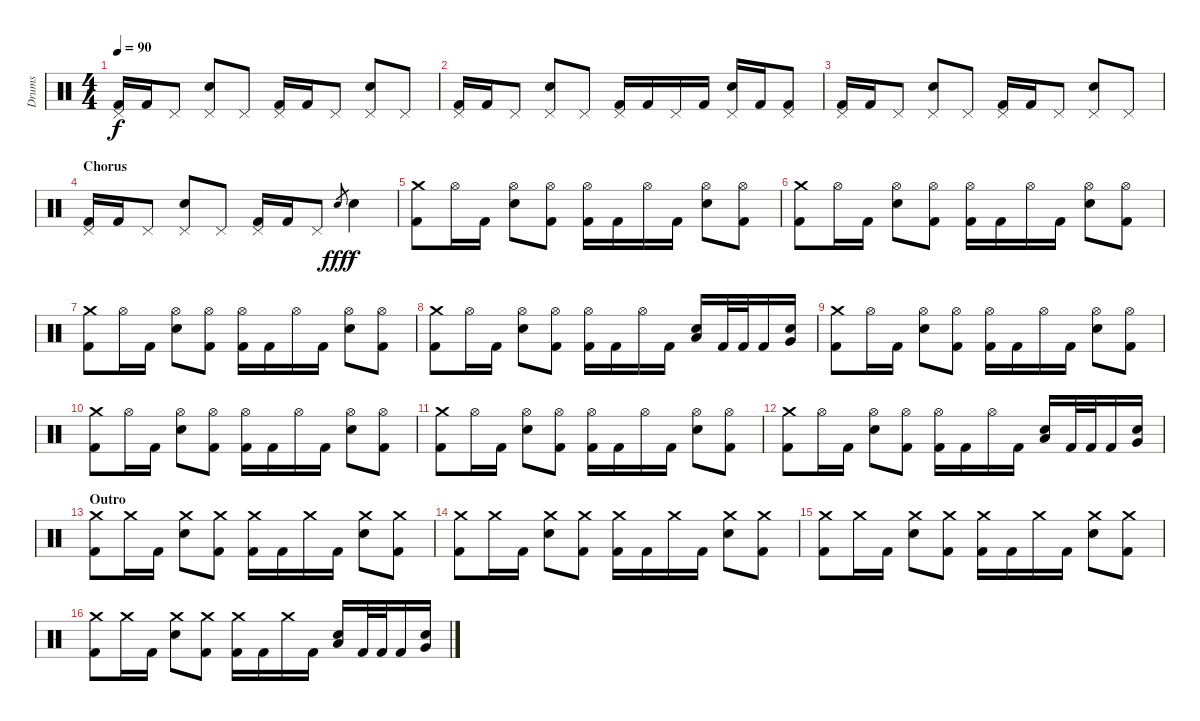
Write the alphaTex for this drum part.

\track ("Drums" "Drums") {instrument percussion}
\staff {score}
\articulation defaults
\ts (4 4)
\tempo 90
\clef neutral
\ks c
("Pedal Hi-Hat (hit)" "Kick (hit) 2").16{dy f} "Kick (hit) 2".16 "Pedal Hi-Hat (hit)".8 ("Pedal Hi-Hat (hit)" "Electric Snare (hit)").8 "Pedal Hi-Hat (hit)".8 ("Pedal Hi-Hat (hit)" "Kick (hit) 2").16 "Kick (hit) 2".16 "Pedal Hi-Hat (hit)".8 ("Pedal Hi-Hat (hit)" "Electric Snare (hit)").8 "Pedal Hi-Hat (hit)".8 |
("Pedal Hi-Hat (hit)" "Kick (hit) 2").16 "Kick (hit) 2".16 "Pedal Hi-Hat (hit)".8 ("Pedal Hi-Hat (hit)" "Electric Snare (hit)").8 "Pedal Hi-Hat (hit)".8 ("Pedal Hi-Hat (hit)" "Kick (hit) 2").16 "Kick (hit) 2".16 "Pedal Hi-Hat (hit)".16 "Kick (hit) 2".16 ("Pedal Hi-Hat (hit)" "Electric Snare (hit)").16 "Kick (hit) 2".16 ("Pedal Hi-Hat (hit)" "Kick (hit) 2").8 |
("Pedal Hi-Hat (hit)" "Kick (hit) 2").16 "Kick (hit) 2".16 "Pedal Hi-Hat (hit)".8 ("Pedal Hi-Hat (hit)" "Electric Snare (hit)").8 "Pedal Hi-Hat (hit)".8 ("Pedal Hi-Hat (hit)" "Kick (hit) 2").16 "Kick (hit) 2".16 "Pedal Hi-Hat (hit)".8 ("Pedal Hi-Hat (hit)" "Electric Snare (hit)").8 "Pedal Hi-Hat (hit)".8 |
\section ("" "Chorus")
("Pedal Hi-Hat (hit)" "Kick (hit) 2").16 "Kick (hit) 2".16 "Pedal Hi-Hat (hit)".8 ("Pedal Hi-Hat (hit)" "Electric Snare (hit)").8 "Pedal Hi-Hat (hit)".8 ("Pedal Hi-Hat (hit)" "Kick (hit) 2").16 "Kick (hit) 2".16 "Pedal Hi-Hat (hit)".8 "Electric Snare (hit)".8{gr dy fff} "Electric Snare (hit)".4{dy f} |
("Crash medium (hit)" "Kick (hit) 2").8 "Hi-Hat (open)".16 "Kick (hit) 2".16 ("Hi-Hat (open)" "Electric Snare (hit)").8 ("Hi-Hat (open)" "Kick (hit) 2").8 ("Hi-Hat (open)" "Kick (hit) 2").16 "Kick (hit) 2".16 "Hi-Hat (open)".16 "Kick (hit) 2".16 ("Hi-Hat (open)" "Electric Snare (hit)").8 ("Hi-Hat (open)" "Kick (hit) 2").8 |
("Crash medium (hit)" "Kick (hit) 2").8 "Hi-Hat (open)".16 "Kick (hit) 2".16 ("Hi-Hat (open)" "Electric Snare (hit)").8 ("Hi-Hat (open)" "Kick (hit) 2").8 ("Hi-Hat (open)" "Kick (hit) 2").16 "Kick (hit) 2".16 "Hi-Hat (open)".16 "Kick (hit) 2".16 ("Hi-Hat (open)" "Electric Snare (hit)").8 ("Hi-Hat (open)" "Kick (hit) 2").8 |
("Crash medium (hit)" "Kick (hit) 2").8 "Hi-Hat (open)".16 "Kick (hit) 2".16 ("Hi-Hat (open)" "Electric Snare (hit)").8 ("Hi-Hat (open)" "Kick (hit) 2").8 ("Hi-Hat (open)" "Kick (hit) 2").16 "Kick (hit) 2".16 "Hi-Hat (open)".16 "Kick (hit) 2".16 ("Hi-Hat (open)" "Electric Snare (hit)").8 ("Hi-Hat (open)" "Kick (hit) 2").8 |
("Crash medium (hit)" "Kick (hit) 2").8 "Hi-Hat (open)".16 "Kick (hit) 2".16 ("Hi-Hat (open)" "Electric Snare (hit)").8 ("Hi-Hat (open)" "Kick (hit) 2").8 ("Hi-Hat (open)" "Kick (hit) 2").16 "Kick (hit) 2".16 "Hi-Hat (open)".16 "Kick (hit) 2".16 ("Electric Snare (hit)" "Low Tom (hit)").16 "Kick (hit) 2".32 "Kick (hit) 2".32 "Kick (hit) 2".16 ("Electric Snare (hit)" "Very Low Tom (hit)").16 |
("Crash medium (hit)" "Kick (hit) 2").8 "Hi-Hat (open)".16 "Kick (hit) 2".16 ("Hi-Hat (open)" "Electric Snare (hit)").8 ("Hi-Hat (open)" "Kick (hit) 2").8 ("Hi-Hat (open)" "Kick (hit) 2").16 "Kick (hit) 2".16 "Hi-Hat (open)".16 "Kick (hit) 2".16 ("Hi-Hat (open)" "Electric Snare (hit)").8 ("Hi-Hat (open)" "Kick (hit) 2").8 |
("Crash medium (hit)" "Kick (hit) 2").8 "Hi-Hat (open)".16 "Kick (hit) 2".16 ("Hi-Hat (open)" "Electric Snare (hit)").8 ("Hi-Hat (open)" "Kick (hit) 2").8 ("Hi-Hat (open)" "Kick (hit) 2").16 "Kick (hit) 2".16 "Hi-Hat (open)".16 "Kick (hit) 2".16 ("Hi-Hat (open)" "Electric Snare (hit)").8 ("Hi-Hat (open)" "Kick (hit) 2").8 |
("Crash medium (hit)" "Kick (hit) 2").8 "Hi-Hat (open)".16 "Kick (hit) 2".16 ("Hi-Hat (open)" "Electric Snare (hit)").8 ("Hi-Hat (open)" "Kick (hit) 2").8 ("Hi-Hat (open)" "Kick (hit) 2").16 "Kick (hit) 2".16 "Hi-Hat (open)".16 "Kick (hit) 2".16 ("Hi-Hat (open)" "Electric Snare (hit)").8 ("Hi-Hat (open)" "Kick (hit) 2").8 |
("Crash medium (hit)" "Kick (hit) 2").8 "Hi-Hat (open)".16 "Kick (hit) 2".16 ("Hi-Hat (open)" "Electric Snare (hit)").8 ("Hi-Hat (open)" "Kick (hit) 2").8 ("Hi-Hat (open)" "Kick (hit) 2").16 "Kick (hit) 2".16 "Hi-Hat (open)".16 "Kick (hit) 2".16 ("Electric Snare (hit)" "Low Tom (hit)").16 "Kick (hit) 2".32 "Kick (hit) 2".32 "Kick (hit) 2".16 ("Electric Snare (hit)" "Very Low Tom (hit)").16 |
\section ("" "Outro")
("Crash medium (hit)" "Kick (hit) 2").8 "Crash medium (hit)".16 "Kick (hit) 2".16 ("Crash medium (hit)" "Electric Snare (hit)").8 ("Crash medium (hit)" "Kick (hit) 2").8 ("Crash medium (hit)" "Kick (hit) 2").16 "Kick (hit) 2".16 "Crash medium (hit)".16 "Kick (hit) 2".16 ("Crash medium (hit)" "Electric Snare (hit)").8 ("Crash medium (hit)" "Kick (hit) 2").8 |
("Crash medium (hit)" "Kick (hit) 2").8 "Crash medium (hit)".16 "Kick (hit) 2".16 ("Crash medium (hit)" "Electric Snare (hit)").8 ("Crash medium (hit)" "Kick (hit) 2").8 ("Crash medium (hit)" "Kick (hit) 2").16 "Kick (hit) 2".16 "Crash medium (hit)".16 "Kick (hit) 2".16 ("Crash medium (hit)" "Electric Snare (hit)").8 ("Crash medium (hit)" "Kick (hit) 2").8 |
("Crash medium (hit)" "Kick (hit) 2").8 "Crash medium (hit)".16 "Kick (hit) 2".16 ("Crash medium (hit)" "Electric Snare (hit)").8 ("Crash medium (hit)" "Kick (hit) 2").8 ("Crash medium (hit)" "Kick (hit) 2").16 "Kick (hit) 2".16 "Crash medium (hit)".16 "Kick (hit) 2".16 ("Crash medium (hit)" "Electric Snare (hit)").8 ("Crash medium (hit)" "Kick (hit) 2").8 |
("Crash medium (hit)" "Kick (hit) 2").8 "Crash medium (hit)".16 "Kick (hit) 2".16 ("Crash medium (hit)" "Electric Snare (hit)").8 ("Crash medium (hit)" "Kick (hit) 2").8 ("Crash medium (hit)" "Kick (hit) 2").16 "Kick (hit) 2".16 "Crash medium (hit)".16 "Kick (hit) 2".16 ("Electric Snare (hit)" "Low Tom (hit)").16 "Kick (hit) 2".32 "Kick (hit) 2".32 "Kick (hit) 2".16 ("Electric Snare (hit)" "Very Low Tom (hit)").16
